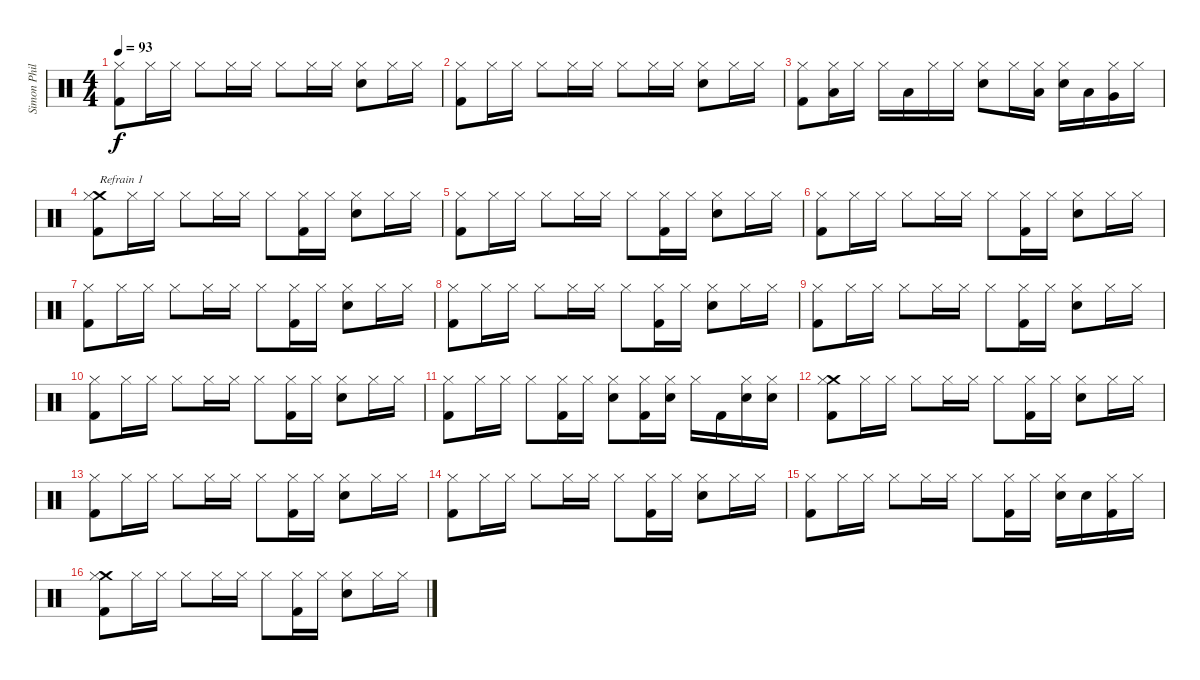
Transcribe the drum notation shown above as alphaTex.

\track ("Simon Phillips" "Simon Phil") {instrument percussion}
\staff {score}
\articulation defaults
\ts (4 4)
\tempo 93
\clef neutral
\ks c
("Hi-Hat (closed)" "Kick (hit) 2").8{dy f} "Hi-Hat (closed)".16 "Hi-Hat (closed)".16 "Hi-Hat (closed)".8 "Hi-Hat (closed)".16 "Hi-Hat (closed)".16 "Hi-Hat (closed)".8 "Hi-Hat (closed)".16 "Hi-Hat (closed)".16 ("Electric Snare (hit)" "Hi-Hat (closed)").8 "Hi-Hat (closed)".16 "Hi-Hat (closed)".16 |
("Hi-Hat (closed)" "Kick (hit) 2").8 "Hi-Hat (closed)".16 "Hi-Hat (closed)".16 "Hi-Hat (closed)".8 "Hi-Hat (closed)".16 "Hi-Hat (closed)".16 "Hi-Hat (closed)".8 "Hi-Hat (closed)".16 "Hi-Hat (closed)".16 ("Electric Snare (hit)" "Hi-Hat (closed)").8 "Hi-Hat (closed)".16 "Hi-Hat (closed)".16 |
("Hi-Hat (closed)" "Kick (hit) 2").8 ("Low Tom (hit)" "Hi-Hat (closed)").16 "Hi-Hat (closed)".16 "Hi-Hat (closed)".16 "Low Tom (hit)".16 "Hi-Hat (closed)".16 "Hi-Hat (closed)".16 ("Electric Snare (hit)" "Hi-Hat (closed)").8 "Hi-Hat (closed)".16 ("Low Tom (hit)" "Hi-Hat (closed)").16 ("Electric Snare (hit)" "Hi-Hat (closed)").16 "Low Tom (hit)".16 ("Very Low Tom (hit)" "Hi-Hat (closed)").16 "Hi-Hat (closed)".16 |
("Crash medium (hit)" "Hi-Hat (closed)" "Kick (hit) 2").8{txt "Refrain 1"} "Hi-Hat (closed)".16 "Hi-Hat (closed)".16 "Hi-Hat (closed)".8 "Hi-Hat (closed)".16 "Hi-Hat (closed)".16 "Hi-Hat (closed)".8 ("Hi-Hat (closed)" "Kick (hit) 2").16 "Hi-Hat (closed)".16 ("Electric Snare (hit)" "Hi-Hat (closed)").8 "Hi-Hat (closed)".16 "Hi-Hat (closed)".16 |
("Hi-Hat (closed)" "Kick (hit) 2").8 "Hi-Hat (closed)".16 "Hi-Hat (closed)".16 "Hi-Hat (closed)".8 "Hi-Hat (closed)".16 "Hi-Hat (closed)".16 "Hi-Hat (closed)".8 ("Hi-Hat (closed)" "Kick (hit) 2").16 "Hi-Hat (closed)".16 ("Electric Snare (hit)" "Hi-Hat (closed)").8 "Hi-Hat (closed)".16 "Hi-Hat (closed)".16 |
("Hi-Hat (closed)" "Kick (hit) 2").8 "Hi-Hat (closed)".16 "Hi-Hat (closed)".16 "Hi-Hat (closed)".8 "Hi-Hat (closed)".16 "Hi-Hat (closed)".16 "Hi-Hat (closed)".8 ("Hi-Hat (closed)" "Kick (hit) 2").16 "Hi-Hat (closed)".16 ("Electric Snare (hit)" "Hi-Hat (closed)").8 "Hi-Hat (closed)".16 "Hi-Hat (closed)".16 |
("Hi-Hat (closed)" "Kick (hit) 2").8 "Hi-Hat (closed)".16 "Hi-Hat (closed)".16 "Hi-Hat (closed)".8 "Hi-Hat (closed)".16 "Hi-Hat (closed)".16 "Hi-Hat (closed)".8 ("Hi-Hat (closed)" "Kick (hit) 2").16 "Hi-Hat (closed)".16 ("Electric Snare (hit)" "Hi-Hat (closed)").8 "Hi-Hat (closed)".16 "Hi-Hat (closed)".16 |
("Hi-Hat (closed)" "Kick (hit) 2").8 "Hi-Hat (closed)".16 "Hi-Hat (closed)".16 "Hi-Hat (closed)".8 "Hi-Hat (closed)".16 "Hi-Hat (closed)".16 "Hi-Hat (closed)".8 ("Hi-Hat (closed)" "Kick (hit) 2").16 "Hi-Hat (closed)".16 ("Electric Snare (hit)" "Hi-Hat (closed)").8 "Hi-Hat (closed)".16 "Hi-Hat (closed)".16 |
("Hi-Hat (closed)" "Kick (hit) 2").8 "Hi-Hat (closed)".16 "Hi-Hat (closed)".16 "Hi-Hat (closed)".8 "Hi-Hat (closed)".16 "Hi-Hat (closed)".16 "Hi-Hat (closed)".8 ("Hi-Hat (closed)" "Kick (hit) 2").16 "Hi-Hat (closed)".16 ("Electric Snare (hit)" "Hi-Hat (closed)").8 "Hi-Hat (closed)".16 "Hi-Hat (closed)".16 |
("Hi-Hat (closed)" "Kick (hit) 2").8 "Hi-Hat (closed)".16 "Hi-Hat (closed)".16 "Hi-Hat (closed)".8 "Hi-Hat (closed)".16 "Hi-Hat (closed)".16 "Hi-Hat (closed)".8 ("Hi-Hat (closed)" "Kick (hit) 2").16 "Hi-Hat (closed)".16 ("Electric Snare (hit)" "Hi-Hat (closed)").8 "Hi-Hat (closed)".16 "Hi-Hat (closed)".16 |
("Hi-Hat (closed)" "Kick (hit) 2").8 "Hi-Hat (closed)".16 "Hi-Hat (closed)".16 "Hi-Hat (closed)".8 ("Hi-Hat (closed)" "Kick (hit) 2").16 "Hi-Hat (closed)".16 ("Electric Snare (hit)" "Hi-Hat (closed)").8 ("Hi-Hat (closed)" "Kick (hit) 2").16 ("Electric Snare (hit)" "Hi-Hat (closed)").16 "Hi-Hat (closed)".16 "Kick (hit) 2".16 ("Electric Snare (hit)" "Hi-Hat (closed)").16 ("Electric Snare (hit)" "Hi-Hat (closed)").16 |
("Crash medium (hit)" "Hi-Hat (closed)" "Kick (hit) 2").8 "Hi-Hat (closed)".16 "Hi-Hat (closed)".16 "Hi-Hat (closed)".8 "Hi-Hat (closed)".16 "Hi-Hat (closed)".16 "Hi-Hat (closed)".8 ("Hi-Hat (closed)" "Kick (hit) 2").16 "Hi-Hat (closed)".16 ("Electric Snare (hit)" "Hi-Hat (closed)").8 "Hi-Hat (closed)".16 "Hi-Hat (closed)".16 |
("Hi-Hat (closed)" "Kick (hit) 2").8 "Hi-Hat (closed)".16 "Hi-Hat (closed)".16 "Hi-Hat (closed)".8 "Hi-Hat (closed)".16 "Hi-Hat (closed)".16 "Hi-Hat (closed)".8 ("Hi-Hat (closed)" "Kick (hit) 2").16 "Hi-Hat (closed)".16 ("Electric Snare (hit)" "Hi-Hat (closed)").8 "Hi-Hat (closed)".16 "Hi-Hat (closed)".16 |
("Hi-Hat (closed)" "Kick (hit) 2").8 "Hi-Hat (closed)".16 "Hi-Hat (closed)".16 "Hi-Hat (closed)".8 "Hi-Hat (closed)".16 "Hi-Hat (closed)".16 "Hi-Hat (closed)".8 ("Hi-Hat (closed)" "Kick (hit) 2").16 "Hi-Hat (closed)".16 ("Electric Snare (hit)" "Hi-Hat (closed)").8 "Hi-Hat (closed)".16 "Hi-Hat (closed)".16 |
("Hi-Hat (closed)" "Kick (hit) 2").8 "Hi-Hat (closed)".16 "Hi-Hat (closed)".16 "Hi-Hat (closed)".8 "Hi-Hat (closed)".16 "Hi-Hat (closed)".16 "Hi-Hat (closed)".8 ("Hi-Hat (closed)" "Kick (hit) 2").16 "Hi-Hat (closed)".16 ("Electric Snare (hit)" "Hi-Hat (closed)").16 "Electric Snare (hit)".16 ("Hi-Hat (closed)" "Kick (hit) 2").16 "Hi-Hat (closed)".16 |
("Crash medium (hit)" "Hi-Hat (closed)" "Kick (hit) 2").8 "Hi-Hat (closed)".16 "Hi-Hat (closed)".16 "Hi-Hat (closed)".8 "Hi-Hat (closed)".16 "Hi-Hat (closed)".16 "Hi-Hat (closed)".8 ("Hi-Hat (closed)" "Kick (hit) 2").16 "Hi-Hat (closed)".16 ("Electric Snare (hit)" "Hi-Hat (closed)").8 "Hi-Hat (closed)".16 "Hi-Hat (closed)".16
